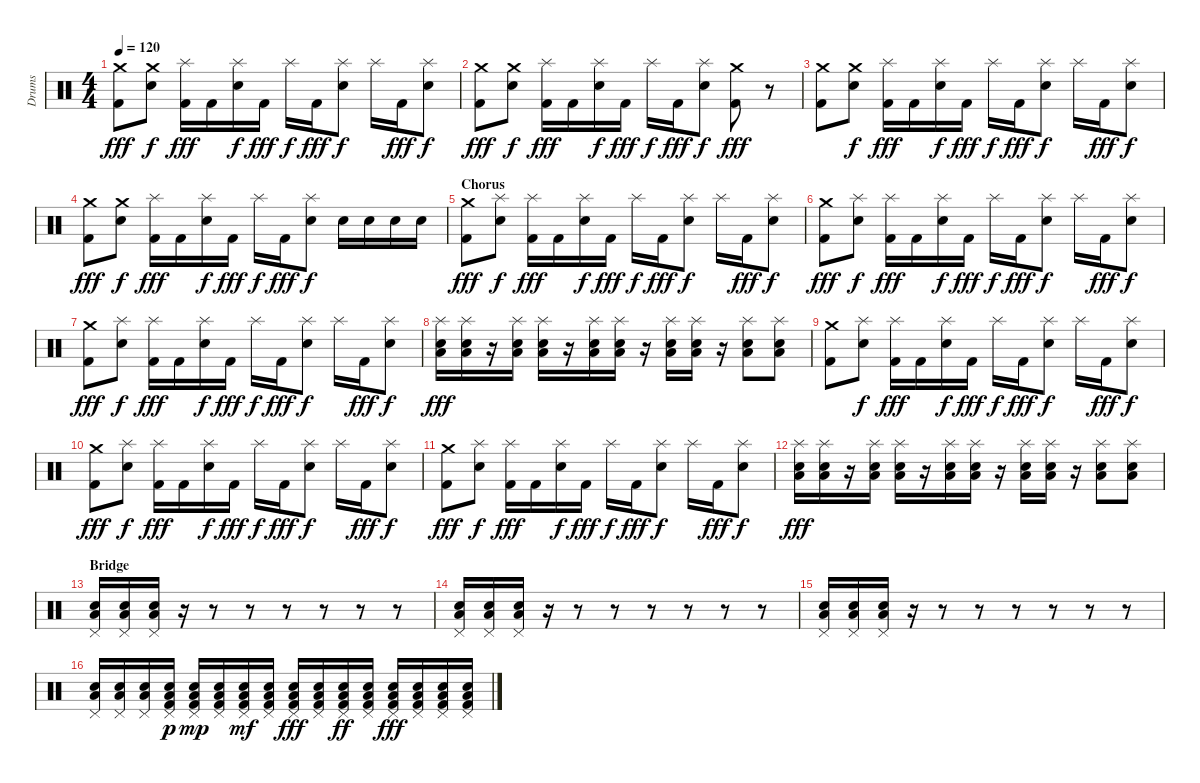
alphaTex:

\track ("Drums" "Drums") {instrument percussion}
\staff {score}
\articulation defaults
\ts (4 4)
\tempo 120
\clef neutral
\ks c
("Crash medium (hit)" "Kick (hit) 2").8{dy fff} ("Crash medium (hit)" "Electric Snare (hit)").8{dy f} ("Splash (hit)" "Kick (hit) 2").16{dy fff} "Kick (hit) 2".16 ("Splash (hit)" "Electric Snare (hit)").16{dy f} "Kick (hit) 2".16{dy fff} "Splash (hit)".16{dy f} "Kick (hit) 2".16{dy fff} ("Splash (hit)" "Electric Snare (hit)").8{dy f} "Splash (hit)".16 "Kick (hit) 2".16{dy fff} ("Splash (hit)" "Electric Snare (hit)").8{dy f} |
("Crash medium (hit)" "Kick (hit) 2").8{dy fff} ("Crash medium (hit)" "Electric Snare (hit)").8{dy f} ("Splash (hit)" "Kick (hit) 2").16{dy fff} "Kick (hit) 2".16 ("Splash (hit)" "Electric Snare (hit)").16{dy f} "Kick (hit) 2".16{dy fff} "Splash (hit)".16{dy f} "Kick (hit) 2".16{dy fff} ("Splash (hit)" "Electric Snare (hit)").8{dy f} ("Crash medium (hit)" "Kick (hit) 2").8{dy fff} r.8 |
("Crash medium (hit)" "Kick (hit) 2").8 ("Crash medium (hit)" "Electric Snare (hit)").8{dy f} ("Splash (hit)" "Kick (hit) 2").16{dy fff} "Kick (hit) 2".16 ("Splash (hit)" "Electric Snare (hit)").16{dy f} "Kick (hit) 2".16{dy fff} "Splash (hit)".16{dy f} "Kick (hit) 2".16{dy fff} ("Splash (hit)" "Electric Snare (hit)").8{dy f} "Splash (hit)".16 "Kick (hit) 2".16{dy fff} ("Splash (hit)" "Electric Snare (hit)").8{dy f} |
("Crash medium (hit)" "Kick (hit) 2").8{dy fff} ("Crash medium (hit)" "Electric Snare (hit)").8{dy f} ("Splash (hit)" "Kick (hit) 2").16{dy fff} "Kick (hit) 2".16 ("Splash (hit)" "Electric Snare (hit)").16{dy f} "Kick (hit) 2".16{dy fff} "Splash (hit)".16{dy f} "Kick (hit) 2".16{dy fff} ("Splash (hit)" "Electric Snare (hit)").8{dy f} "Electric Snare (hit)".16 "Electric Snare (hit)".16 "Electric Snare (hit)".16 "Electric Snare (hit)".16 |
\section ("" "Chorus")
("Crash medium (hit)" "Kick (hit) 2").8{dy fff} ("Splash (hit)" "Electric Snare (hit)").8{dy f} ("Splash (hit)" "Kick (hit) 2").16{dy fff} "Kick (hit) 2".16 ("Splash (hit)" "Electric Snare (hit)").16{dy f} "Kick (hit) 2".16{dy fff} "Splash (hit)".16{dy f} "Kick (hit) 2".16{dy fff} ("Splash (hit)" "Electric Snare (hit)").8{dy f} "Splash (hit)".16 "Kick (hit) 2".16{dy fff} ("Splash (hit)" "Electric Snare (hit)").8{dy f} |
("Crash medium (hit)" "Kick (hit) 2").8{dy fff} ("Splash (hit)" "Electric Snare (hit)").8{dy f} ("Splash (hit)" "Kick (hit) 2").16{dy fff} "Kick (hit) 2".16 ("Splash (hit)" "Electric Snare (hit)").16{dy f} "Kick (hit) 2".16{dy fff} "Splash (hit)".16{dy f} "Kick (hit) 2".16{dy fff} ("Splash (hit)" "Electric Snare (hit)").8{dy f} "Splash (hit)".16 "Kick (hit) 2".16{dy fff} ("Splash (hit)" "Electric Snare (hit)").8{dy f} |
("Crash medium (hit)" "Kick (hit) 2").8{dy fff} ("Splash (hit)" "Electric Snare (hit)").8{dy f} ("Splash (hit)" "Kick (hit) 2").16{dy fff} "Kick (hit) 2".16 ("Splash (hit)" "Electric Snare (hit)").16{dy f} "Kick (hit) 2".16{dy fff} "Splash (hit)".16{dy f} "Kick (hit) 2".16{dy fff} ("Splash (hit)" "Electric Snare (hit)").8{dy f} "Splash (hit)".16 "Kick (hit) 2".16{dy fff} ("Splash (hit)" "Electric Snare (hit)").8{dy f} |
("Splash (hit)" "Electric Snare (hit)" "Low Floor Tom (hit)").16{dy fff} ("Splash (hit)" "Electric Snare (hit)" "Low Floor Tom (hit)").16 r.16 ("Splash (hit)" "Electric Snare (hit)" "Low Floor Tom (hit)").16 ("Splash (hit)" "Electric Snare (hit)" "Low Floor Tom (hit)").16 r.16 ("Splash (hit)" "Electric Snare (hit)" "Low Floor Tom (hit)").16 ("Splash (hit)" "Electric Snare (hit)" "Low Floor Tom (hit)").16 r.16 ("Splash (hit)" "Electric Snare (hit)" "Low Floor Tom (hit)").16 ("Splash (hit)" "Electric Snare (hit)" "Low Floor Tom (hit)").16 r.16 ("Splash (hit)" "Electric Snare (hit)" "Low Floor Tom (hit)").8 ("Splash (hit)" "Electric Snare (hit)" "Low Floor Tom (hit)").8 |
("Crash medium (hit)" "Kick (hit) 2").8 ("Splash (hit)" "Electric Snare (hit)").8{dy f} ("Splash (hit)" "Kick (hit) 2").16{dy fff} "Kick (hit) 2".16 ("Splash (hit)" "Electric Snare (hit)").16{dy f} "Kick (hit) 2".16{dy fff} "Splash (hit)".16{dy f} "Kick (hit) 2".16{dy fff} ("Splash (hit)" "Electric Snare (hit)").8{dy f} "Splash (hit)".16 "Kick (hit) 2".16{dy fff} ("Splash (hit)" "Electric Snare (hit)").8{dy f} |
("Crash medium (hit)" "Kick (hit) 2").8{dy fff} ("Splash (hit)" "Electric Snare (hit)").8{dy f} ("Splash (hit)" "Kick (hit) 2").16{dy fff} "Kick (hit) 2".16 ("Splash (hit)" "Electric Snare (hit)").16{dy f} "Kick (hit) 2".16{dy fff} "Splash (hit)".16{dy f} "Kick (hit) 2".16{dy fff} ("Splash (hit)" "Electric Snare (hit)").8{dy f} "Splash (hit)".16 "Kick (hit) 2".16{dy fff} ("Splash (hit)" "Electric Snare (hit)").8{dy f} |
("Crash medium (hit)" "Kick (hit) 2").8{dy fff} ("Splash (hit)" "Electric Snare (hit)").8{dy f} ("Splash (hit)" "Kick (hit) 2").16{dy fff} "Kick (hit) 2".16 ("Splash (hit)" "Electric Snare (hit)").16{dy f} "Kick (hit) 2".16{dy fff} "Splash (hit)".16{dy f} "Kick (hit) 2".16{dy fff} ("Splash (hit)" "Electric Snare (hit)").8{dy f} "Splash (hit)".16 "Kick (hit) 2".16{dy fff} ("Splash (hit)" "Electric Snare (hit)").8{dy f} |
("Splash (hit)" "Electric Snare (hit)" "Low Floor Tom (hit)").16{dy fff} ("Splash (hit)" "Electric Snare (hit)" "Low Floor Tom (hit)").16 r.16 ("Splash (hit)" "Electric Snare (hit)" "Low Floor Tom (hit)").16 ("Splash (hit)" "Electric Snare (hit)" "Low Floor Tom (hit)").16 r.16 ("Splash (hit)" "Electric Snare (hit)" "Low Floor Tom (hit)").16 ("Splash (hit)" "Electric Snare (hit)" "Low Floor Tom (hit)").16 r.16 ("Splash (hit)" "Electric Snare (hit)" "Low Floor Tom (hit)").16 ("Splash (hit)" "Electric Snare (hit)" "Low Floor Tom (hit)").16 r.16 ("Splash (hit)" "Electric Snare (hit)" "Low Floor Tom (hit)").8 ("Splash (hit)" "Electric Snare (hit)" "Low Floor Tom (hit)").8 |
\section ("" "Bridge")
("Pedal Hi-Hat (hit)" "Electric Snare (hit)" "Low Floor Tom (hit)").16 ("Pedal Hi-Hat (hit)" "Electric Snare (hit)" "Low Floor Tom (hit)").16 ("Pedal Hi-Hat (hit)" "Electric Snare (hit)" "Low Floor Tom (hit)").16 r.16 r.8 r.8 r.8 r.8 r.8 r.8 |
("Pedal Hi-Hat (hit)" "Electric Snare (hit)" "Low Floor Tom (hit)").16 ("Pedal Hi-Hat (hit)" "Electric Snare (hit)" "Low Floor Tom (hit)").16 ("Pedal Hi-Hat (hit)" "Electric Snare (hit)" "Low Floor Tom (hit)").16 r.16 r.8 r.8 r.8 r.8 r.8 r.8 |
("Pedal Hi-Hat (hit)" "Electric Snare (hit)" "Low Floor Tom (hit)").16 ("Pedal Hi-Hat (hit)" "Electric Snare (hit)" "Low Floor Tom (hit)").16 ("Pedal Hi-Hat (hit)" "Electric Snare (hit)" "Low Floor Tom (hit)").16 r.16 r.8 r.8 r.8 r.8 r.8 r.8 |
("Pedal Hi-Hat (hit)" "Electric Snare (hit)" "Low Floor Tom (hit)").16 ("Pedal Hi-Hat (hit)" "Electric Snare (hit)" "Low Floor Tom (hit)").16 ("Pedal Hi-Hat (hit)" "Electric Snare (hit)" "Low Floor Tom (hit)").16 ("Pedal Hi-Hat (hit)" "Electric Snare (hit)" "Low Floor Tom (hit)" "Kick (hit) 2").16{dy p} ("Pedal Hi-Hat (hit)" "Electric Snare (hit)" "Low Floor Tom (hit)" "Kick (hit) 2").16{dy mp} ("Pedal Hi-Hat (hit)" "Electric Snare (hit)" "Low Floor Tom (hit)" "Kick (hit) 2").16 ("Pedal Hi-Hat (hit)" "Electric Snare (hit)" "Low Floor Tom (hit)" "Kick (hit) 2").16{dy mf} ("Pedal Hi-Hat (hit)" "Electric Snare (hit)" "Low Floor Tom (hit)" "Kick (hit) 2").16 ("Pedal Hi-Hat (hit)" "Electric Snare (hit)" "Low Floor Tom (hit)" "Kick (hit) 2").16{dy fff} ("Pedal Hi-Hat (hit)" "Electric Snare (hit)" "Low Floor Tom (hit)" "Kick (hit) 2").16 ("Pedal Hi-Hat (hit)" "Electric Snare (hit)" "Low Floor Tom (hit)" "Kick (hit) 2").16{dy ff} ("Pedal Hi-Hat (hit)" "Electric Snare (hit)" "Low Floor Tom (hit)" "Kick (hit) 2").16 ("Pedal Hi-Hat (hit)" "Electric Snare (hit)" "Low Floor Tom (hit)" "Kick (hit) 2").16{dy fff} ("Pedal Hi-Hat (hit)" "Electric Snare (hit)" "Low Floor Tom (hit)" "Kick (hit) 2").16 ("Pedal Hi-Hat (hit)" "Electric Snare (hit)" "Low Floor Tom (hit)" "Kick (hit) 2").16 ("Pedal Hi-Hat (hit)" "Electric Snare (hit)" "Low Floor Tom (hit)" "Kick (hit) 2").16
